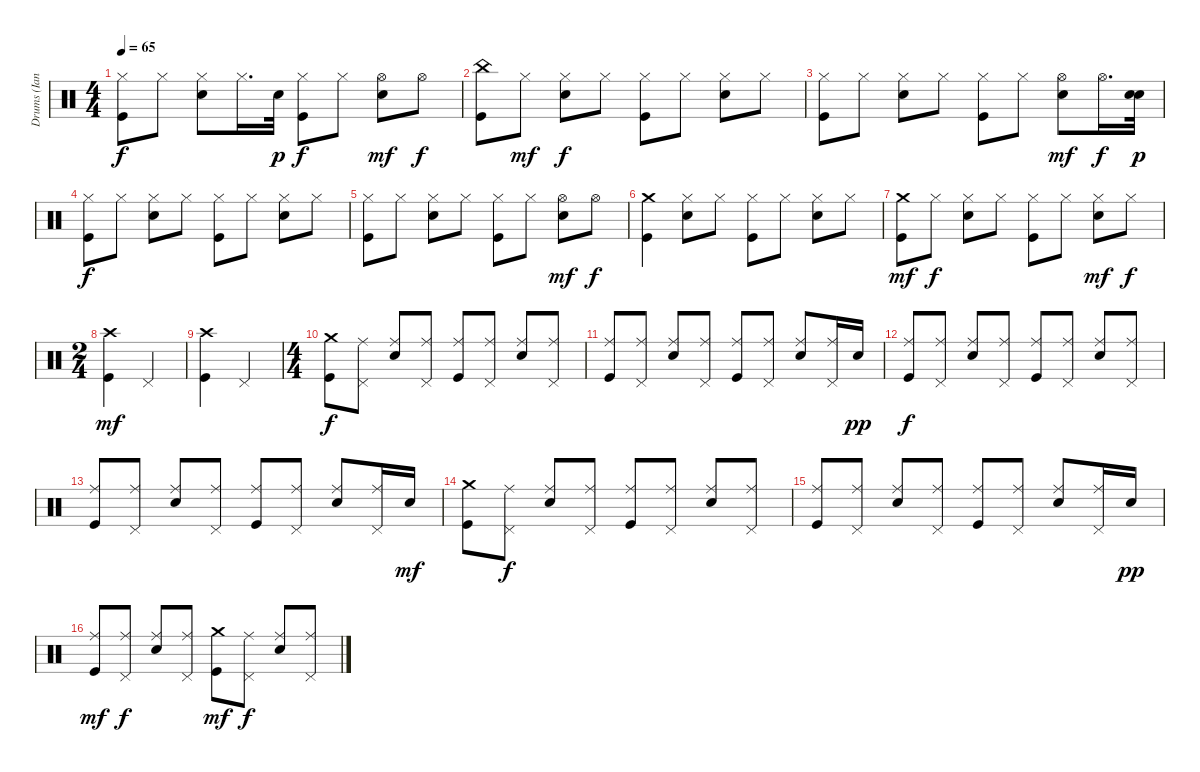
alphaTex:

\track ("Drums (Ian Paice)" "Drums (Ian") {instrument percussion}
\staff {score}
\articulation defaults
\ts (4 4)
\tempo 65
\clef neutral
\ks c
("Hi-Hat (closed)" "Kick (hit)").8{dy f} "Hi-Hat (closed)".8 ("Hi-Hat (closed)" "Electric Snare (hit)").8 "Hi-Hat (closed)".16{d} "Electric Snare (hit)".32{dy p} ("Hi-Hat (closed)" "Kick (hit)").8{dy f} "Hi-Hat (closed)".8 ("Hi-Hat (open)" "Electric Snare (hit)").8{dy mf} "Hi-Hat (open)".8{dy f} |
("China (hit)" "Kick (hit)").8 "Hi-Hat (closed)".8{dy mf} ("Hi-Hat (closed)" "Electric Snare (hit)").8{dy f} "Hi-Hat (closed)".8 ("Hi-Hat (closed)" "Kick (hit)").8 "Hi-Hat (closed)".8 ("Hi-Hat (closed)" "Electric Snare (hit)").8 "Hi-Hat (closed)".8 |
("Hi-Hat (closed)" "Kick (hit)").8 "Hi-Hat (closed)".8 ("Hi-Hat (closed)" "Electric Snare (hit)").8 "Hi-Hat (closed)".8 ("Hi-Hat (closed)" "Kick (hit)").8 "Hi-Hat (closed)".8 ("Hi-Hat (open)" "Electric Snare (hit)").8{dy mf} "Hi-Hat (open)".16{d dy f} ("Electric Snare (hit)" "Electric Snare (hit)").32{dy p} |
("Hi-Hat (closed)" "Kick (hit)").8{dy f} "Hi-Hat (closed)".8 ("Hi-Hat (closed)" "Electric Snare (hit)").8 "Hi-Hat (closed)".8 ("Hi-Hat (closed)" "Kick (hit)").8 "Hi-Hat (closed)".8 ("Hi-Hat (closed)" "Electric Snare (hit)").8 "Hi-Hat (closed)".8 |
("Hi-Hat (closed)" "Kick (hit)").8 "Hi-Hat (closed)".8 ("Hi-Hat (closed)" "Electric Snare (hit)").8 "Hi-Hat (closed)".8 ("Hi-Hat (closed)" "Kick (hit)").8 "Hi-Hat (closed)".8 ("Hi-Hat (open)" "Electric Snare (hit)").8{dy mf} "Hi-Hat (open)".8{dy f} |
("Crash medium (hit)" "Kick (hit)").4 ("Hi-Hat (closed)" "Electric Snare (hit)").8 "Hi-Hat (closed)".8 ("Hi-Hat (closed)" "Kick (hit)").8 "Hi-Hat (closed)".8 ("Hi-Hat (closed)" "Electric Snare (hit)").8 "Hi-Hat (closed)".8 |
("Crash medium (hit)" "Kick (hit)").8{dy mf} "Hi-Hat (closed)".8{dy f} ("Hi-Hat (closed)" "Electric Snare (hit)").8 "Hi-Hat (closed)".8 ("Hi-Hat (closed)" "Kick (hit)").8 "Hi-Hat (closed)".8 ("Hi-Hat (closed)" "Electric Snare (hit)").8{dy mf} "Hi-Hat (closed)".8{dy f} |
\ts (2 4)
("Crash high (hit)" "Kick (hit)").4{dy mf} "Pedal Hi-Hat (hit)".4 |
("Crash high (hit)" "Kick (hit)").4 "Pedal Hi-Hat (hit)".4 |
\ts (4 4)
("Crash medium (hit)" "Kick (hit)").8{dy f} ("Ride (middle)" "Pedal Hi-Hat (hit)").8 ("Ride (middle)" "Electric Snare (hit)").8 ("Ride (middle)" "Pedal Hi-Hat (hit)").8 ("Ride (middle)" "Kick (hit)").8 ("Ride (middle)" "Pedal Hi-Hat (hit)").8 ("Ride (middle)" "Electric Snare (hit)").8 ("Ride (middle)" "Pedal Hi-Hat (hit)").8 |
("Ride (middle)" "Kick (hit)").8 ("Ride (middle)" "Pedal Hi-Hat (hit)").8 ("Ride (middle)" "Electric Snare (hit)").8 ("Ride (middle)" "Pedal Hi-Hat (hit)").8 ("Ride (middle)" "Kick (hit)").8 ("Ride (middle)" "Pedal Hi-Hat (hit)").8 ("Ride (middle)" "Electric Snare (hit)").8 ("Ride (middle)" "Pedal Hi-Hat (hit)").16 "Electric Snare (hit)".16{dy pp} |
("Ride (middle)" "Kick (hit)").8{dy f} ("Ride (middle)" "Pedal Hi-Hat (hit)").8 ("Ride (middle)" "Electric Snare (hit)").8 ("Ride (middle)" "Pedal Hi-Hat (hit)").8 ("Ride (middle)" "Kick (hit)").8 ("Ride (middle)" "Pedal Hi-Hat (hit)").8 ("Ride (middle)" "Electric Snare (hit)").8 ("Ride (middle)" "Pedal Hi-Hat (hit)").8 |
("Ride (middle)" "Kick (hit)").8 ("Ride (middle)" "Pedal Hi-Hat (hit)").8 ("Ride (middle)" "Electric Snare (hit)").8 ("Ride (middle)" "Pedal Hi-Hat (hit)").8 ("Ride (middle)" "Kick (hit)").8 ("Ride (middle)" "Pedal Hi-Hat (hit)").8 ("Ride (middle)" "Electric Snare (hit)").8 ("Ride (middle)" "Pedal Hi-Hat (hit)").16 "Electric Snare (hit)".16{dy mf} |
("Crash medium (hit)" "Kick (hit)").8 ("Ride (middle)" "Pedal Hi-Hat (hit)").8{dy f} ("Ride (middle)" "Electric Snare (hit)").8 ("Ride (middle)" "Pedal Hi-Hat (hit)").8 ("Ride (middle)" "Kick (hit)").8 ("Ride (middle)" "Pedal Hi-Hat (hit)").8 ("Ride (middle)" "Electric Snare (hit)").8 ("Ride (middle)" "Pedal Hi-Hat (hit)").8 |
("Ride (middle)" "Kick (hit)").8 ("Ride (middle)" "Pedal Hi-Hat (hit)").8 ("Ride (middle)" "Electric Snare (hit)").8 ("Ride (middle)" "Pedal Hi-Hat (hit)").8 ("Ride (middle)" "Kick (hit)").8 ("Ride (middle)" "Pedal Hi-Hat (hit)").8 ("Ride (middle)" "Electric Snare (hit)").8 ("Ride (middle)" "Pedal Hi-Hat (hit)").16 "Electric Snare (hit)".16{dy pp} |
("Ride (middle)" "Kick (hit)").8{dy mf} ("Ride (middle)" "Pedal Hi-Hat (hit)").8{dy f} ("Ride (middle)" "Electric Snare (hit)").8 ("Ride (middle)" "Pedal Hi-Hat (hit)").8 ("Crash medium (hit)" "Kick (hit)").8{dy mf} ("Ride (middle)" "Pedal Hi-Hat (hit)").8{dy f} ("Ride (middle)" "Electric Snare (hit)").8 ("Ride (middle)" "Pedal Hi-Hat (hit)").8
